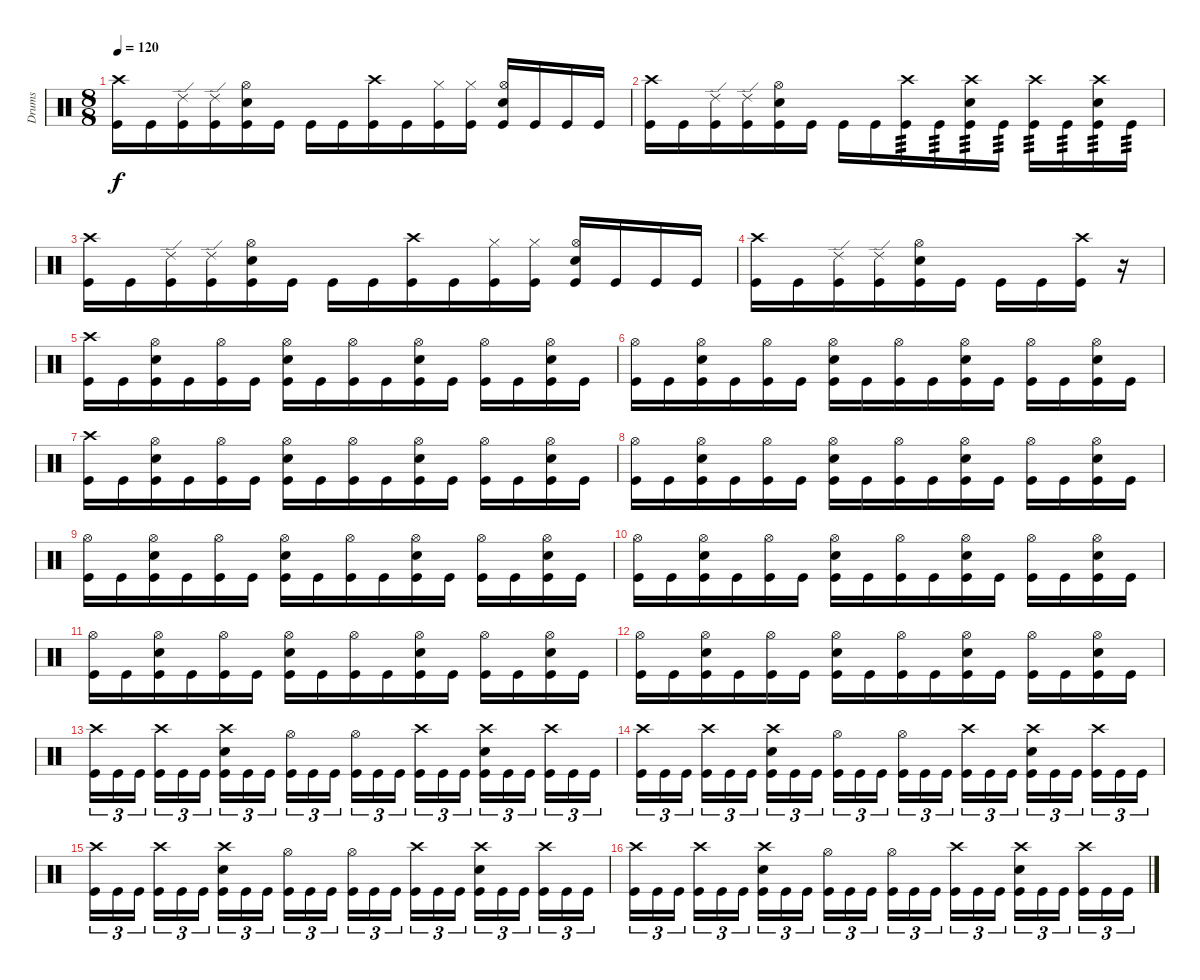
\track ("Drums" "Drums") {instrument percussion}
\staff {score}
\articulation defaults
\ts (8 8)
\tempo 120
\clef neutral
\ks c
("Crash high (hit)" "Kick (hit)").16{dy f} "Kick (hit)".16 ("Ride (edge) 2" "Kick (hit)").16 ("Ride (edge) 2" "Kick (hit)").16 ("Hi-Hat (open)" "Electric Snare (hit)" "Kick (hit)").16 "Kick (hit)".16 "Kick (hit)".16 "Kick (hit)".16 ("Crash high (hit)" "Kick (hit)").16 "Kick (hit)".16 ("Hi-Hat (closed)" "Kick (hit)").16 ("Hi-Hat (closed)" "Kick (hit)").16 ("Hi-Hat (open)" "Electric Snare (hit)" "Kick (hit)").16 "Kick (hit)".16 "Kick (hit)".16 "Kick (hit)".16 |
("Crash high (hit)" "Kick (hit)").16 "Kick (hit)".16 ("Ride (edge) 2" "Kick (hit)").16 ("Ride (edge) 2" "Kick (hit)").16 ("Hi-Hat (open)" "Electric Snare (hit)" "Kick (hit)").16 "Kick (hit)".16 "Kick (hit)".16 "Kick (hit)".16 ("Crash high (hit)" "Kick (hit)").16{tp 3} "Kick (hit)".16{tp 3} ("Crash high (hit)" "Electric Snare (hit)" "Kick (hit)").16{tp 3} "Kick (hit)".16{tp 3} ("Crash high (hit)" "Kick (hit)").16{tp 3} "Kick (hit)".16{tp 3} ("Crash high (hit)" "Electric Snare (hit)" "Kick (hit)").16{tp 3} "Kick (hit)".16{tp 3} |
("Crash high (hit)" "Kick (hit)").16 "Kick (hit)".16 ("Ride (edge) 2" "Kick (hit)").16 ("Ride (edge) 2" "Kick (hit)").16 ("Hi-Hat (open)" "Electric Snare (hit)" "Kick (hit)").16 "Kick (hit)".16 "Kick (hit)".16 "Kick (hit)".16 ("Crash high (hit)" "Kick (hit)").16 "Kick (hit)".16 ("Hi-Hat (closed)" "Kick (hit)").16 ("Hi-Hat (closed)" "Kick (hit)").16 ("Hi-Hat (open)" "Electric Snare (hit)" "Kick (hit)").16 "Kick (hit)".16 "Kick (hit)".16 "Kick (hit)".16 |
("Crash high (hit)" "Kick (hit)").16 "Kick (hit)".16 ("Ride (edge) 2" "Kick (hit)").16 ("Ride (edge) 2" "Kick (hit)").16 ("Hi-Hat (open)" "Electric Snare (hit)" "Kick (hit)").16 "Kick (hit)".16 "Kick (hit)".16 "Kick (hit)".16 ("Crash high (hit)" "Kick (hit)").16 r.16 |
("Crash high (hit)" "Kick (hit)").16 "Kick (hit)".16 ("Hi-Hat (open)" "Electric Snare (hit)" "Kick (hit)").16 "Kick (hit)".16 ("Hi-Hat (open)" "Kick (hit)").16 "Kick (hit)".16 ("Hi-Hat (open)" "Electric Snare (hit)" "Kick (hit)").16 "Kick (hit)".16 ("Hi-Hat (open)" "Kick (hit)").16 "Kick (hit)".16 ("Hi-Hat (open)" "Electric Snare (hit)" "Kick (hit)").16 "Kick (hit)".16 ("Hi-Hat (open)" "Kick (hit)").16 "Kick (hit)".16 ("Hi-Hat (open)" "Electric Snare (hit)" "Kick (hit)").16 "Kick (hit)".16 |
("Hi-Hat (open)" "Kick (hit)").16 "Kick (hit)".16 ("Hi-Hat (open)" "Electric Snare (hit)" "Kick (hit)").16 "Kick (hit)".16 ("Hi-Hat (open)" "Kick (hit)").16 "Kick (hit)".16 ("Hi-Hat (open)" "Electric Snare (hit)" "Kick (hit)").16 "Kick (hit)".16 ("Hi-Hat (open)" "Kick (hit)").16 "Kick (hit)".16 ("Hi-Hat (open)" "Electric Snare (hit)" "Kick (hit)").16 "Kick (hit)".16 ("Hi-Hat (open)" "Kick (hit)").16 "Kick (hit)".16 ("Hi-Hat (open)" "Electric Snare (hit)" "Kick (hit)").16 "Kick (hit)".16 |
("Crash high (hit)" "Kick (hit)").16 "Kick (hit)".16 ("Hi-Hat (open)" "Electric Snare (hit)" "Kick (hit)").16 "Kick (hit)".16 ("Hi-Hat (open)" "Kick (hit)").16 "Kick (hit)".16 ("Hi-Hat (open)" "Electric Snare (hit)" "Kick (hit)").16 "Kick (hit)".16 ("Hi-Hat (open)" "Kick (hit)").16 "Kick (hit)".16 ("Hi-Hat (open)" "Electric Snare (hit)" "Kick (hit)").16 "Kick (hit)".16 ("Hi-Hat (open)" "Kick (hit)").16 "Kick (hit)".16 ("Hi-Hat (open)" "Electric Snare (hit)" "Kick (hit)").16 "Kick (hit)".16 |
("Hi-Hat (open)" "Kick (hit)").16 "Kick (hit)".16 ("Hi-Hat (open)" "Electric Snare (hit)" "Kick (hit)").16 "Kick (hit)".16 ("Hi-Hat (open)" "Kick (hit)").16 "Kick (hit)".16 ("Hi-Hat (open)" "Electric Snare (hit)" "Kick (hit)").16 "Kick (hit)".16 ("Hi-Hat (open)" "Kick (hit)").16 "Kick (hit)".16 ("Hi-Hat (open)" "Electric Snare (hit)" "Kick (hit)").16 "Kick (hit)".16 ("Hi-Hat (open)" "Kick (hit)").16 "Kick (hit)".16 ("Hi-Hat (open)" "Electric Snare (hit)" "Kick (hit)").16 "Kick (hit)".16 |
("Hi-Hat (open)" "Kick (hit)").16 "Kick (hit)".16 ("Hi-Hat (open)" "Electric Snare (hit)" "Kick (hit)").16 "Kick (hit)".16 ("Hi-Hat (open)" "Kick (hit)").16 "Kick (hit)".16 ("Hi-Hat (open)" "Electric Snare (hit)" "Kick (hit)").16 "Kick (hit)".16 ("Hi-Hat (open)" "Kick (hit)").16 "Kick (hit)".16 ("Hi-Hat (open)" "Electric Snare (hit)" "Kick (hit)").16 "Kick (hit)".16 ("Hi-Hat (open)" "Kick (hit)").16 "Kick (hit)".16 ("Hi-Hat (open)" "Electric Snare (hit)" "Kick (hit)").16 "Kick (hit)".16 |
("Hi-Hat (open)" "Kick (hit)").16 "Kick (hit)".16 ("Hi-Hat (open)" "Electric Snare (hit)" "Kick (hit)").16 "Kick (hit)".16 ("Hi-Hat (open)" "Kick (hit)").16 "Kick (hit)".16 ("Hi-Hat (open)" "Electric Snare (hit)" "Kick (hit)").16 "Kick (hit)".16 ("Hi-Hat (open)" "Kick (hit)").16 "Kick (hit)".16 ("Hi-Hat (open)" "Electric Snare (hit)" "Kick (hit)").16 "Kick (hit)".16 ("Hi-Hat (open)" "Kick (hit)").16 "Kick (hit)".16 ("Hi-Hat (open)" "Electric Snare (hit)" "Kick (hit)").16 "Kick (hit)".16 |
("Hi-Hat (open)" "Kick (hit)").16 "Kick (hit)".16 ("Hi-Hat (open)" "Electric Snare (hit)" "Kick (hit)").16 "Kick (hit)".16 ("Hi-Hat (open)" "Kick (hit)").16 "Kick (hit)".16 ("Hi-Hat (open)" "Electric Snare (hit)" "Kick (hit)").16 "Kick (hit)".16 ("Hi-Hat (open)" "Kick (hit)").16 "Kick (hit)".16 ("Hi-Hat (open)" "Electric Snare (hit)" "Kick (hit)").16 "Kick (hit)".16 ("Hi-Hat (open)" "Kick (hit)").16 "Kick (hit)".16 ("Hi-Hat (open)" "Electric Snare (hit)" "Kick (hit)").16 "Kick (hit)".16 |
("Hi-Hat (open)" "Kick (hit)").16 "Kick (hit)".16 ("Hi-Hat (open)" "Electric Snare (hit)" "Kick (hit)").16 "Kick (hit)".16 ("Hi-Hat (open)" "Kick (hit)").16 "Kick (hit)".16 ("Hi-Hat (open)" "Electric Snare (hit)" "Kick (hit)").16 "Kick (hit)".16 ("Hi-Hat (open)" "Kick (hit)").16 "Kick (hit)".16 ("Hi-Hat (open)" "Electric Snare (hit)" "Kick (hit)").16 "Kick (hit)".16 ("Hi-Hat (open)" "Kick (hit)").16 "Kick (hit)".16 ("Hi-Hat (open)" "Electric Snare (hit)" "Kick (hit)").16 "Kick (hit)".16 |
("Crash high (hit)" "Kick (hit)").16{tu (3 2)} "Kick (hit)".16{tu (3 2)} "Kick (hit)".16{tu (3 2)} ("Crash high (hit)" "Kick (hit)").16{tu (3 2)} "Kick (hit)".16{tu (3 2)} "Kick (hit)".16{tu (3 2)} ("Crash high (hit)" "Electric Snare (hit)" "Kick (hit)").16{tu (3 2)} "Kick (hit)".16{tu (3 2)} "Kick (hit)".16{tu (3 2)} ("Hi-Hat (open)" "Kick (hit)").16{tu (3 2)} "Kick (hit)".16{tu (3 2)} "Kick (hit)".16{tu (3 2)} ("Hi-Hat (open)" "Kick (hit)").16{tu (3 2)} "Kick (hit)".16{tu (3 2)} "Kick (hit)".16{tu (3 2)} ("Crash high (hit)" "Kick (hit)").16{tu (3 2)} "Kick (hit)".16{tu (3 2)} "Kick (hit)".16{tu (3 2)} ("Crash high (hit)" "Electric Snare (hit)" "Kick (hit)").16{tu (3 2)} "Kick (hit)".16{tu (3 2)} "Kick (hit)".16{tu (3 2)} ("Crash high (hit)" "Kick (hit)").16{tu (3 2)} "Kick (hit)".16{tu (3 2)} "Kick (hit)".16{tu (3 2)} |
("Crash high (hit)" "Kick (hit)").16{tu (3 2)} "Kick (hit)".16{tu (3 2)} "Kick (hit)".16{tu (3 2)} ("Crash high (hit)" "Kick (hit)").16{tu (3 2)} "Kick (hit)".16{tu (3 2)} "Kick (hit)".16{tu (3 2)} ("Crash high (hit)" "Electric Snare (hit)" "Kick (hit)").16{tu (3 2)} "Kick (hit)".16{tu (3 2)} "Kick (hit)".16{tu (3 2)} ("Hi-Hat (open)" "Kick (hit)").16{tu (3 2)} "Kick (hit)".16{tu (3 2)} "Kick (hit)".16{tu (3 2)} ("Hi-Hat (open)" "Kick (hit)").16{tu (3 2)} "Kick (hit)".16{tu (3 2)} "Kick (hit)".16{tu (3 2)} ("Crash high (hit)" "Kick (hit)").16{tu (3 2)} "Kick (hit)".16{tu (3 2)} "Kick (hit)".16{tu (3 2)} ("Crash high (hit)" "Electric Snare (hit)" "Kick (hit)").16{tu (3 2)} "Kick (hit)".16{tu (3 2)} "Kick (hit)".16{tu (3 2)} ("Crash high (hit)" "Kick (hit)").16{tu (3 2)} "Kick (hit)".16{tu (3 2)} "Kick (hit)".16{tu (3 2)} |
("Crash high (hit)" "Kick (hit)").16{tu (3 2)} "Kick (hit)".16{tu (3 2)} "Kick (hit)".16{tu (3 2)} ("Crash high (hit)" "Kick (hit)").16{tu (3 2)} "Kick (hit)".16{tu (3 2)} "Kick (hit)".16{tu (3 2)} ("Crash high (hit)" "Electric Snare (hit)" "Kick (hit)").16{tu (3 2)} "Kick (hit)".16{tu (3 2)} "Kick (hit)".16{tu (3 2)} ("Hi-Hat (open)" "Kick (hit)").16{tu (3 2)} "Kick (hit)".16{tu (3 2)} "Kick (hit)".16{tu (3 2)} ("Hi-Hat (open)" "Kick (hit)").16{tu (3 2)} "Kick (hit)".16{tu (3 2)} "Kick (hit)".16{tu (3 2)} ("Crash high (hit)" "Kick (hit)").16{tu (3 2)} "Kick (hit)".16{tu (3 2)} "Kick (hit)".16{tu (3 2)} ("Crash high (hit)" "Electric Snare (hit)" "Kick (hit)").16{tu (3 2)} "Kick (hit)".16{tu (3 2)} "Kick (hit)".16{tu (3 2)} ("Crash high (hit)" "Kick (hit)").16{tu (3 2)} "Kick (hit)".16{tu (3 2)} "Kick (hit)".16{tu (3 2)} |
("Crash high (hit)" "Kick (hit)").16{tu (3 2)} "Kick (hit)".16{tu (3 2)} "Kick (hit)".16{tu (3 2)} ("Crash high (hit)" "Kick (hit)").16{tu (3 2)} "Kick (hit)".16{tu (3 2)} "Kick (hit)".16{tu (3 2)} ("Crash high (hit)" "Electric Snare (hit)" "Kick (hit)").16{tu (3 2)} "Kick (hit)".16{tu (3 2)} "Kick (hit)".16{tu (3 2)} ("Hi-Hat (open)" "Kick (hit)").16{tu (3 2)} "Kick (hit)".16{tu (3 2)} "Kick (hit)".16{tu (3 2)} ("Hi-Hat (open)" "Kick (hit)").16{tu (3 2)} "Kick (hit)".16{tu (3 2)} "Kick (hit)".16{tu (3 2)} ("Crash high (hit)" "Kick (hit)").16{tu (3 2)} "Kick (hit)".16{tu (3 2)} "Kick (hit)".16{tu (3 2)} ("Crash high (hit)" "Electric Snare (hit)" "Kick (hit)").16{tu (3 2)} "Kick (hit)".16{tu (3 2)} "Kick (hit)".16{tu (3 2)} ("Crash high (hit)" "Kick (hit)").16{tu (3 2)} "Kick (hit)".16{tu (3 2)} "Kick (hit)".16{tu (3 2)}
